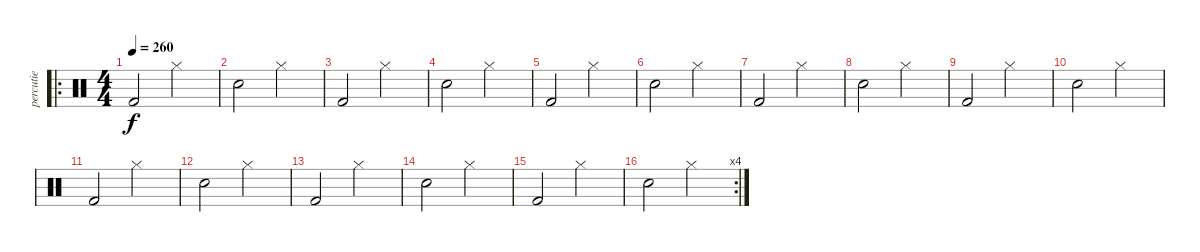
\track ("percutie" "percutie") {instrument percussion}
\staff {score}
\articulation defaults
\ro
\ts (4 4)
\tempo 260
\clef neutral
\ks c "Kick (hit) 2".2{dy f} "Hi-Hat (closed)".2
|
"Snare (hit) 2".2 "Hi-Hat (closed)".2 |
"Kick (hit) 2".2 "Hi-Hat (closed)".2 |
"Snare (hit) 2".2 "Hi-Hat (closed)".2 |
"Kick (hit) 2".2 "Hi-Hat (closed)".2 |
"Snare (hit) 2".2 "Hi-Hat (closed)".2 |
"Kick (hit) 2".2 "Hi-Hat (closed)".2 |
"Snare (hit) 2".2 "Hi-Hat (closed)".2 |
"Kick (hit) 2".2 "Hi-Hat (closed)".2 |
"Snare (hit) 2".2 "Hi-Hat (closed)".2 |
"Kick (hit) 2".2 "Hi-Hat (closed)".2 |
"Snare (hit) 2".2 "Hi-Hat (closed)".2 |
"Kick (hit) 2".2 "Hi-Hat (closed)".2 |
"Snare (hit) 2".2 "Hi-Hat (closed)".2 |
"Kick (hit) 2".2 "Hi-Hat (closed)".2 |
\rc 4 "Snare (hit) 2".2 "Hi-Hat (closed)".2
